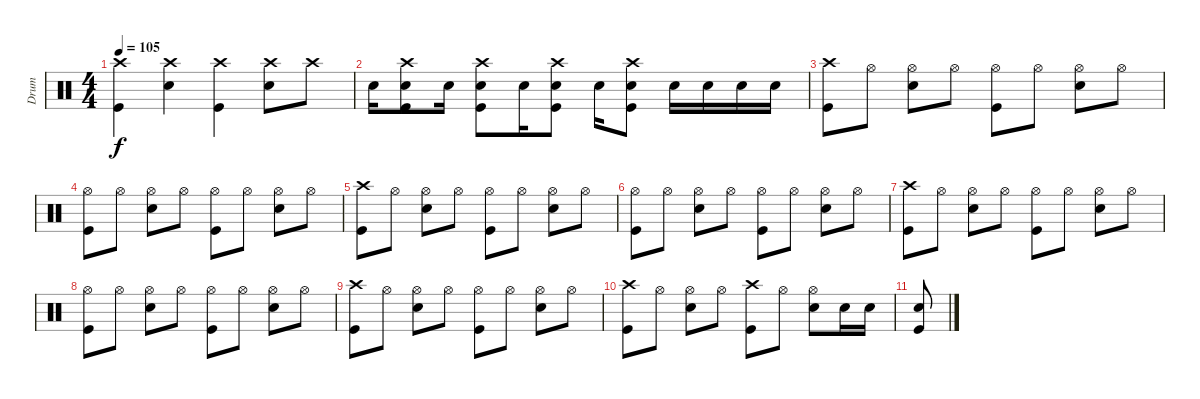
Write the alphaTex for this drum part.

\track ("Drum" "Drum") {instrument percussion}
\staff {score}
\articulation defaults
\ts (4 4)
\tempo 105
\clef neutral
\ks c
("Crash high (hit)" "Kick (hit)").4{dy f} ("Crash high (hit)" "Snare (hit) 2").4 ("Crash high (hit)" "Kick (hit)").4 ("Crash high (hit)" "Snare (hit) 2").8 "Crash high (hit)".8 |
"Snare (hit) 2".16 ("Crash high (hit)" "Snare (hit) 2" "Kick (hit)").8 "Snare (hit) 2".16 ("Crash high (hit)" "Snare (hit) 2" "Kick (hit)").8 "Snare (hit) 2".16 ("Crash high (hit)" "Snare (hit) 2" "Kick (hit)").8 "Snare (hit) 2".16 ("Crash high (hit)" "Snare (hit) 2" "Kick (hit)").8 "Snare (hit) 2".16 "Snare (hit) 2".16 "Snare (hit) 2".16 "Snare (hit) 2".16 |
("Crash high (hit)" "Kick (hit)").8 "Hi-Hat (open)".8 ("Hi-Hat (open)" "Snare (hit) 2").8 "Hi-Hat (open)".8 ("Hi-Hat (open)" "Kick (hit)").8 "Hi-Hat (open)".8 ("Hi-Hat (open)" "Snare (hit) 2").8 "Hi-Hat (open)".8 |
("Hi-Hat (open)" "Kick (hit)").8 "Hi-Hat (open)".8 ("Hi-Hat (open)" "Snare (hit) 2").8 "Hi-Hat (open)".8 ("Hi-Hat (open)" "Kick (hit)").8 "Hi-Hat (open)".8 ("Hi-Hat (open)" "Snare (hit) 2").8 "Hi-Hat (open)".8 |
("Crash high (hit)" "Kick (hit)").8 "Hi-Hat (open)".8 ("Hi-Hat (open)" "Snare (hit) 2").8 "Hi-Hat (open)".8 ("Hi-Hat (open)" "Kick (hit)").8 "Hi-Hat (open)".8 ("Hi-Hat (open)" "Snare (hit) 2").8 "Hi-Hat (open)".8 |
("Hi-Hat (open)" "Kick (hit)").8 "Hi-Hat (open)".8 ("Hi-Hat (open)" "Snare (hit) 2").8 "Hi-Hat (open)".8 ("Hi-Hat (open)" "Kick (hit)").8 "Hi-Hat (open)".8 ("Hi-Hat (open)" "Snare (hit) 2").8 "Hi-Hat (open)".8 |
("Crash high (hit)" "Kick (hit)").8 "Hi-Hat (open)".8 ("Hi-Hat (open)" "Snare (hit) 2").8 "Hi-Hat (open)".8 ("Hi-Hat (open)" "Kick (hit)").8 "Hi-Hat (open)".8 ("Hi-Hat (open)" "Snare (hit) 2").8 "Hi-Hat (open)".8 |
("Hi-Hat (open)" "Kick (hit)").8 "Hi-Hat (open)".8 ("Hi-Hat (open)" "Snare (hit) 2").8 "Hi-Hat (open)".8 ("Hi-Hat (open)" "Kick (hit)").8 "Hi-Hat (open)".8 ("Hi-Hat (open)" "Snare (hit) 2").8 "Hi-Hat (open)".8 |
("Crash high (hit)" "Kick (hit)").8 "Hi-Hat (open)".8 ("Hi-Hat (open)" "Snare (hit) 2").8 "Hi-Hat (open)".8 ("Hi-Hat (open)" "Kick (hit)").8 "Hi-Hat (open)".8 ("Hi-Hat (open)" "Snare (hit) 2").8 "Hi-Hat (open)".8 |
("Crash high (hit)" "Kick (hit)").8 "Hi-Hat (open)".8 ("Hi-Hat (open)" "Snare (hit) 2").8 "Hi-Hat (open)".8 ("Crash high (hit)" "Kick (hit)").8 "Hi-Hat (open)".8 ("Hi-Hat (open)" "Snare (hit) 2").8 "Snare (hit) 2".16 "Snare (hit) 2".16 |
("Snare (hit) 2" "Kick (hit)").8
